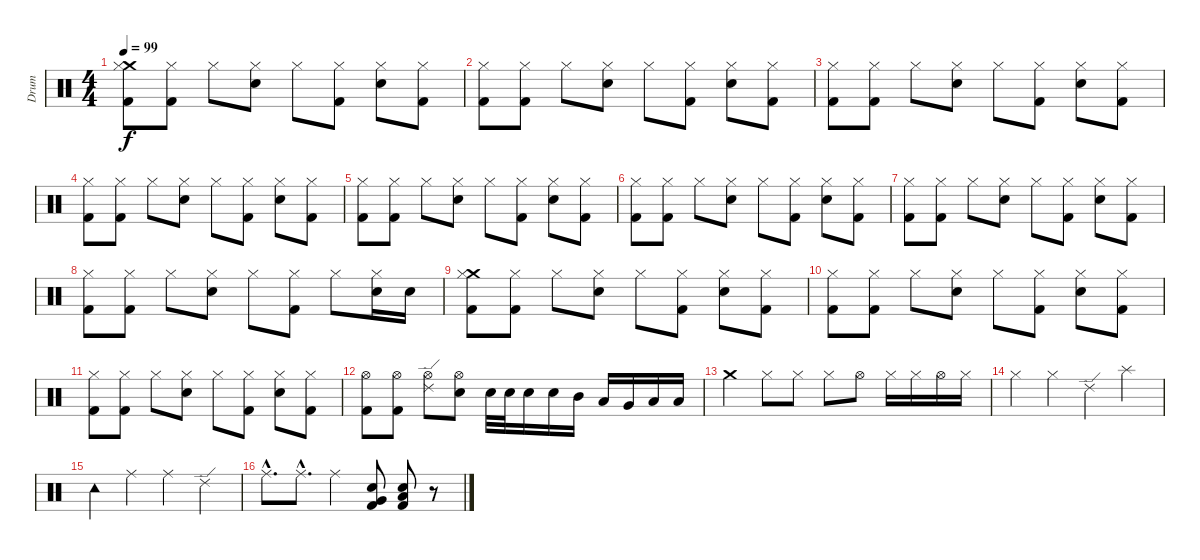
\track ("Drum" "Drum") {instrument percussion}
\staff {score}
\articulation defaults
\ts (4 4)
\tempo 99
\clef neutral
\ks c
("Crash medium (hit)" "Hi-Hat (closed)" "Kick (hit) 2").8{dy f} ("Hi-Hat (closed)" "Kick (hit) 2").8 "Hi-Hat (closed)".8 ("Hi-Hat (closed)" "Electric Snare (hit)").8 "Hi-Hat (closed)".8 ("Hi-Hat (closed)" "Kick (hit) 2").8 ("Hi-Hat (closed)" "Electric Snare (hit)").8 ("Hi-Hat (closed)" "Kick (hit) 2").8 |
("Hi-Hat (closed)" "Kick (hit) 2").8 ("Hi-Hat (closed)" "Kick (hit) 2").8 "Hi-Hat (closed)".8 ("Hi-Hat (closed)" "Electric Snare (hit)").8 "Hi-Hat (closed)".8 ("Hi-Hat (closed)" "Kick (hit) 2").8 ("Hi-Hat (closed)" "Electric Snare (hit)").8 ("Hi-Hat (closed)" "Kick (hit) 2").8 |
("Hi-Hat (closed)" "Kick (hit) 2").8 ("Hi-Hat (closed)" "Kick (hit) 2").8 "Hi-Hat (closed)".8 ("Hi-Hat (closed)" "Electric Snare (hit)").8 "Hi-Hat (closed)".8 ("Hi-Hat (closed)" "Kick (hit) 2").8 ("Hi-Hat (closed)" "Electric Snare (hit)").8 ("Hi-Hat (closed)" "Kick (hit) 2").8 |
("Hi-Hat (closed)" "Kick (hit) 2").8 ("Hi-Hat (closed)" "Kick (hit) 2").8 "Hi-Hat (closed)".8 ("Hi-Hat (closed)" "Electric Snare (hit)").8 "Hi-Hat (closed)".8 ("Hi-Hat (closed)" "Kick (hit) 2").8 ("Hi-Hat (closed)" "Electric Snare (hit)").8 ("Hi-Hat (closed)" "Kick (hit) 2").8 |
("Hi-Hat (closed)" "Kick (hit) 2").8 ("Hi-Hat (closed)" "Kick (hit) 2").8 "Hi-Hat (closed)".8 ("Hi-Hat (closed)" "Electric Snare (hit)").8 "Hi-Hat (closed)".8 ("Hi-Hat (closed)" "Kick (hit) 2").8 ("Hi-Hat (closed)" "Electric Snare (hit)").8 ("Hi-Hat (closed)" "Kick (hit) 2").8 |
("Hi-Hat (closed)" "Kick (hit) 2").8 ("Hi-Hat (closed)" "Kick (hit) 2").8 "Hi-Hat (closed)".8 ("Hi-Hat (closed)" "Electric Snare (hit)").8 "Hi-Hat (closed)".8 ("Hi-Hat (closed)" "Kick (hit) 2").8 ("Hi-Hat (closed)" "Electric Snare (hit)").8 ("Hi-Hat (closed)" "Kick (hit) 2").8 |
("Hi-Hat (closed)" "Kick (hit) 2").8 ("Hi-Hat (closed)" "Kick (hit) 2").8 "Hi-Hat (closed)".8 ("Hi-Hat (closed)" "Electric Snare (hit)").8 "Hi-Hat (closed)".8 ("Hi-Hat (closed)" "Kick (hit) 2").8 ("Hi-Hat (closed)" "Electric Snare (hit)").8 ("Hi-Hat (closed)" "Kick (hit) 2").8 |
("Hi-Hat (closed)" "Kick (hit) 2").8 ("Hi-Hat (closed)" "Kick (hit) 2").8 "Hi-Hat (closed)".8 ("Hi-Hat (closed)" "Electric Snare (hit)").8 "Hi-Hat (closed)".8 ("Hi-Hat (closed)" "Kick (hit) 2").8 "Hi-Hat (closed)".8 ("Hi-Hat (closed)" "Electric Snare (hit)").16 "Electric Snare (hit)".16 |
("Crash medium (hit)" "Hi-Hat (closed)" "Kick (hit) 2").8 ("Hi-Hat (closed)" "Kick (hit) 2").8 "Hi-Hat (closed)".8 ("Hi-Hat (closed)" "Electric Snare (hit)").8 "Hi-Hat (closed)".8 ("Hi-Hat (closed)" "Kick (hit) 2").8 ("Hi-Hat (closed)" "Electric Snare (hit)").8 ("Hi-Hat (closed)" "Kick (hit) 2").8 |
("Hi-Hat (closed)" "Kick (hit) 2").8 ("Hi-Hat (closed)" "Kick (hit) 2").8 "Hi-Hat (closed)".8 ("Hi-Hat (closed)" "Electric Snare (hit)").8 "Hi-Hat (closed)".8 ("Hi-Hat (closed)" "Kick (hit) 2").8 ("Hi-Hat (closed)" "Electric Snare (hit)").8 ("Hi-Hat (closed)" "Kick (hit) 2").8 |
("Hi-Hat (closed)" "Kick (hit) 2").8 ("Hi-Hat (closed)" "Kick (hit) 2").8 "Hi-Hat (closed)".8 ("Hi-Hat (closed)" "Electric Snare (hit)").8 "Hi-Hat (closed)".8 ("Hi-Hat (closed)" "Kick (hit) 2").8 ("Hi-Hat (closed)" "Electric Snare (hit)").8 ("Hi-Hat (closed)" "Kick (hit) 2").8 |
("Hi-Hat (open)" "Kick (hit) 2").8 ("Hi-Hat (open)" "Kick (hit) 2").8 ("Ride (edge) 2" "Hi-Hat (open)").8 ("Hi-Hat (open)" "Electric Snare (hit)").8 "Electric Snare (hit)".32 "Electric Snare (hit)".32 "Electric Snare (hit)".16 "Electric Snare (hit)".16 "Mid Tom (hit)".16 "Low Tom (hit)".16 "Very Low Tom (hit)".16 "Low Floor Tom (hit)".16 "Low Floor Tom (hit)".16 |
"Crash medium (hit)".4 "Hi-Hat (closed)".8 "Hi-Hat (closed)".8 "Hi-Hat (closed)".8 "Hi-Hat (open)".8 "Hi-Hat (closed)".16 "Hi-Hat (closed)".16 "Hi-Hat (open)".16 "Hi-Hat (closed)".16 |
"Hi-Hat (closed)".4 "Hi-Hat (closed)".4 "Ride (edge) 2".4 "Splash (hit)".4 |
"Tambourine (hit)".4 "Ride (middle)".4 "Ride (middle)".4 "Ride (edge) 2".4 |
"Ride (middle)"{hac}.8{d} "Ride (middle)"{hac}.8{d} "Ride (middle)".4 ("Kick (hit) 2" "Very Low Tom (hit)" "Electric Snare (hit)").8 ("Kick (hit) 2" "Low Floor Tom (hit)" "Electric Snare (hit)").8 r.8
